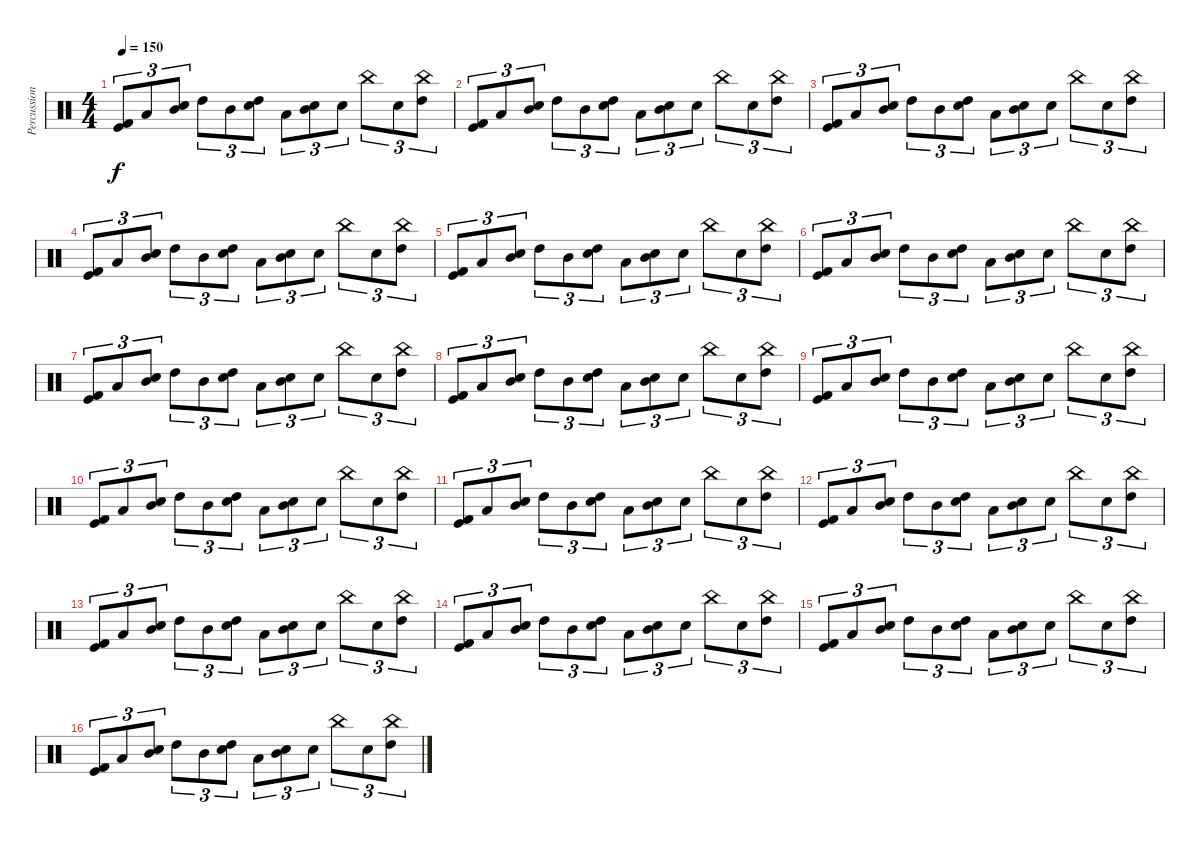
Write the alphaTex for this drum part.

\track ("Percussion" "Percussion") {instrument percussion}
\staff {score}
\articulation defaults
\ts (4 4)
\tempo 150
\clef neutral
\ks c
("Kick (hit) 2" "Kick (hit)").8{tu (3 2) dy f} "Low Tom (hit)".8{tu (3 2)} ("Mid Tom (hit)" "Snare (hit) 2").8{tu (3 2)} "High Tom (hit)".8{tu (3 2)} "Mid Tom (hit)".8{tu (3 2)} ("High Tom (hit)" "Snare (hit) 2").8{tu (3 2)} "Low Tom (hit)".8{tu (3 2)} ("Mid Tom (hit)" "Snare (hit) 2").8{tu (3 2)} "Snare (hit) 2".8{tu (3 2)} "China (hit)".8{tu (3 2)} "Snare (hit) 2".8{tu (3 2)} ("High Tom (hit)" "China (hit)").8{tu (3 2)} |
("Kick (hit) 2" "Kick (hit)").8{tu (3 2)} "Low Tom (hit)".8{tu (3 2)} ("Mid Tom (hit)" "Snare (hit) 2").8{tu (3 2)} "High Tom (hit)".8{tu (3 2)} "Mid Tom (hit)".8{tu (3 2)} ("High Tom (hit)" "Snare (hit) 2").8{tu (3 2)} "Low Tom (hit)".8{tu (3 2)} ("Mid Tom (hit)" "Snare (hit) 2").8{tu (3 2)} "Snare (hit) 2".8{tu (3 2)} "China (hit)".8{tu (3 2)} "Snare (hit) 2".8{tu (3 2)} ("High Tom (hit)" "China (hit)").8{tu (3 2)} |
("Kick (hit) 2" "Kick (hit)").8{tu (3 2)} "Low Tom (hit)".8{tu (3 2)} ("Mid Tom (hit)" "Snare (hit) 2").8{tu (3 2)} "High Tom (hit)".8{tu (3 2)} "Mid Tom (hit)".8{tu (3 2)} ("High Tom (hit)" "Snare (hit) 2").8{tu (3 2)} "Low Tom (hit)".8{tu (3 2)} ("Mid Tom (hit)" "Snare (hit) 2").8{tu (3 2)} "Snare (hit) 2".8{tu (3 2)} "China (hit)".8{tu (3 2)} "Snare (hit) 2".8{tu (3 2)} ("High Tom (hit)" "China (hit)").8{tu (3 2)} |
("Kick (hit) 2" "Kick (hit)").8{tu (3 2)} "Low Tom (hit)".8{tu (3 2)} ("Mid Tom (hit)" "Snare (hit) 2").8{tu (3 2)} "High Tom (hit)".8{tu (3 2)} "Mid Tom (hit)".8{tu (3 2)} ("High Tom (hit)" "Snare (hit) 2").8{tu (3 2)} "Low Tom (hit)".8{tu (3 2)} ("Mid Tom (hit)" "Snare (hit) 2").8{tu (3 2)} "Snare (hit) 2".8{tu (3 2)} "China (hit)".8{tu (3 2)} "Snare (hit) 2".8{tu (3 2)} ("High Tom (hit)" "China (hit)").8{tu (3 2)} |
("Kick (hit) 2" "Kick (hit)").8{tu (3 2)} "Low Tom (hit)".8{tu (3 2)} ("Mid Tom (hit)" "Snare (hit) 2").8{tu (3 2)} "High Tom (hit)".8{tu (3 2)} "Mid Tom (hit)".8{tu (3 2)} ("High Tom (hit)" "Snare (hit) 2").8{tu (3 2)} "Low Tom (hit)".8{tu (3 2)} ("Mid Tom (hit)" "Snare (hit) 2").8{tu (3 2)} "Snare (hit) 2".8{tu (3 2)} "China (hit)".8{tu (3 2)} "Snare (hit) 2".8{tu (3 2)} ("High Tom (hit)" "China (hit)").8{tu (3 2)} |
("Kick (hit) 2" "Kick (hit)").8{tu (3 2)} "Low Tom (hit)".8{tu (3 2)} ("Mid Tom (hit)" "Snare (hit) 2").8{tu (3 2)} "High Tom (hit)".8{tu (3 2)} "Mid Tom (hit)".8{tu (3 2)} ("High Tom (hit)" "Snare (hit) 2").8{tu (3 2)} "Low Tom (hit)".8{tu (3 2)} ("Mid Tom (hit)" "Snare (hit) 2").8{tu (3 2)} "Snare (hit) 2".8{tu (3 2)} "China (hit)".8{tu (3 2)} "Snare (hit) 2".8{tu (3 2)} ("High Tom (hit)" "China (hit)").8{tu (3 2)} |
("Kick (hit) 2" "Kick (hit)").8{tu (3 2)} "Low Tom (hit)".8{tu (3 2)} ("Mid Tom (hit)" "Snare (hit) 2").8{tu (3 2)} "High Tom (hit)".8{tu (3 2)} "Mid Tom (hit)".8{tu (3 2)} ("High Tom (hit)" "Snare (hit) 2").8{tu (3 2)} "Low Tom (hit)".8{tu (3 2)} ("Mid Tom (hit)" "Snare (hit) 2").8{tu (3 2)} "Snare (hit) 2".8{tu (3 2)} "China (hit)".8{tu (3 2)} "Snare (hit) 2".8{tu (3 2)} ("High Tom (hit)" "China (hit)").8{tu (3 2)} |
("Kick (hit) 2" "Kick (hit)").8{tu (3 2)} "Low Tom (hit)".8{tu (3 2)} ("Mid Tom (hit)" "Snare (hit) 2").8{tu (3 2)} "High Tom (hit)".8{tu (3 2)} "Mid Tom (hit)".8{tu (3 2)} ("High Tom (hit)" "Snare (hit) 2").8{tu (3 2)} "Low Tom (hit)".8{tu (3 2)} ("Mid Tom (hit)" "Snare (hit) 2").8{tu (3 2)} "Snare (hit) 2".8{tu (3 2)} "China (hit)".8{tu (3 2)} "Snare (hit) 2".8{tu (3 2)} ("High Tom (hit)" "China (hit)").8{tu (3 2)} |
("Kick (hit) 2" "Kick (hit)").8{tu (3 2)} "Low Tom (hit)".8{tu (3 2)} ("Mid Tom (hit)" "Snare (hit) 2").8{tu (3 2)} "High Tom (hit)".8{tu (3 2)} "Mid Tom (hit)".8{tu (3 2)} ("High Tom (hit)" "Snare (hit) 2").8{tu (3 2)} "Low Tom (hit)".8{tu (3 2)} ("Mid Tom (hit)" "Snare (hit) 2").8{tu (3 2)} "Snare (hit) 2".8{tu (3 2)} "China (hit)".8{tu (3 2)} "Snare (hit) 2".8{tu (3 2)} ("High Tom (hit)" "China (hit)").8{tu (3 2)} |
("Kick (hit) 2" "Kick (hit)").8{tu (3 2)} "Low Tom (hit)".8{tu (3 2)} ("Mid Tom (hit)" "Snare (hit) 2").8{tu (3 2)} "High Tom (hit)".8{tu (3 2)} "Mid Tom (hit)".8{tu (3 2)} ("High Tom (hit)" "Snare (hit) 2").8{tu (3 2)} "Low Tom (hit)".8{tu (3 2)} ("Mid Tom (hit)" "Snare (hit) 2").8{tu (3 2)} "Snare (hit) 2".8{tu (3 2)} "China (hit)".8{tu (3 2)} "Snare (hit) 2".8{tu (3 2)} ("High Tom (hit)" "China (hit)").8{tu (3 2)} |
("Kick (hit) 2" "Kick (hit)").8{tu (3 2)} "Low Tom (hit)".8{tu (3 2)} ("Mid Tom (hit)" "Snare (hit) 2").8{tu (3 2)} "High Tom (hit)".8{tu (3 2)} "Mid Tom (hit)".8{tu (3 2)} ("High Tom (hit)" "Snare (hit) 2").8{tu (3 2)} "Low Tom (hit)".8{tu (3 2)} ("Mid Tom (hit)" "Snare (hit) 2").8{tu (3 2)} "Snare (hit) 2".8{tu (3 2)} "China (hit)".8{tu (3 2)} "Snare (hit) 2".8{tu (3 2)} ("High Tom (hit)" "China (hit)").8{tu (3 2)} |
("Kick (hit) 2" "Kick (hit)").8{tu (3 2)} "Low Tom (hit)".8{tu (3 2)} ("Mid Tom (hit)" "Snare (hit) 2").8{tu (3 2)} "High Tom (hit)".8{tu (3 2)} "Mid Tom (hit)".8{tu (3 2)} ("High Tom (hit)" "Snare (hit) 2").8{tu (3 2)} "Low Tom (hit)".8{tu (3 2)} ("Mid Tom (hit)" "Snare (hit) 2").8{tu (3 2)} "Snare (hit) 2".8{tu (3 2)} "China (hit)".8{tu (3 2)} "Snare (hit) 2".8{tu (3 2)} ("High Tom (hit)" "China (hit)").8{tu (3 2)} |
("Kick (hit) 2" "Kick (hit)").8{tu (3 2)} "Low Tom (hit)".8{tu (3 2)} ("Mid Tom (hit)" "Snare (hit) 2").8{tu (3 2)} "High Tom (hit)".8{tu (3 2)} "Mid Tom (hit)".8{tu (3 2)} ("High Tom (hit)" "Snare (hit) 2").8{tu (3 2)} "Low Tom (hit)".8{tu (3 2)} ("Mid Tom (hit)" "Snare (hit) 2").8{tu (3 2)} "Snare (hit) 2".8{tu (3 2)} "China (hit)".8{tu (3 2)} "Snare (hit) 2".8{tu (3 2)} ("High Tom (hit)" "China (hit)").8{tu (3 2)} |
("Kick (hit) 2" "Kick (hit)").8{tu (3 2)} "Low Tom (hit)".8{tu (3 2)} ("Mid Tom (hit)" "Snare (hit) 2").8{tu (3 2)} "High Tom (hit)".8{tu (3 2)} "Mid Tom (hit)".8{tu (3 2)} ("High Tom (hit)" "Snare (hit) 2").8{tu (3 2)} "Low Tom (hit)".8{tu (3 2)} ("Mid Tom (hit)" "Snare (hit) 2").8{tu (3 2)} "Snare (hit) 2".8{tu (3 2)} "China (hit)".8{tu (3 2)} "Snare (hit) 2".8{tu (3 2)} ("High Tom (hit)" "China (hit)").8{tu (3 2)} |
("Kick (hit) 2" "Kick (hit)").8{tu (3 2)} "Low Tom (hit)".8{tu (3 2)} ("Mid Tom (hit)" "Snare (hit) 2").8{tu (3 2)} "High Tom (hit)".8{tu (3 2)} "Mid Tom (hit)".8{tu (3 2)} ("High Tom (hit)" "Snare (hit) 2").8{tu (3 2)} "Low Tom (hit)".8{tu (3 2)} ("Mid Tom (hit)" "Snare (hit) 2").8{tu (3 2)} "Snare (hit) 2".8{tu (3 2)} "China (hit)".8{tu (3 2)} "Snare (hit) 2".8{tu (3 2)} ("High Tom (hit)" "China (hit)").8{tu (3 2)} |
("Kick (hit) 2" "Kick (hit)").8{tu (3 2)} "Low Tom (hit)".8{tu (3 2)} ("Mid Tom (hit)" "Snare (hit) 2").8{tu (3 2)} "High Tom (hit)".8{tu (3 2)} "Mid Tom (hit)".8{tu (3 2)} ("High Tom (hit)" "Snare (hit) 2").8{tu (3 2)} "Low Tom (hit)".8{tu (3 2)} ("Mid Tom (hit)" "Snare (hit) 2").8{tu (3 2)} "Snare (hit) 2".8{tu (3 2)} "China (hit)".8{tu (3 2)} "Snare (hit) 2".8{tu (3 2)} ("High Tom (hit)" "China (hit)").8{tu (3 2)}
